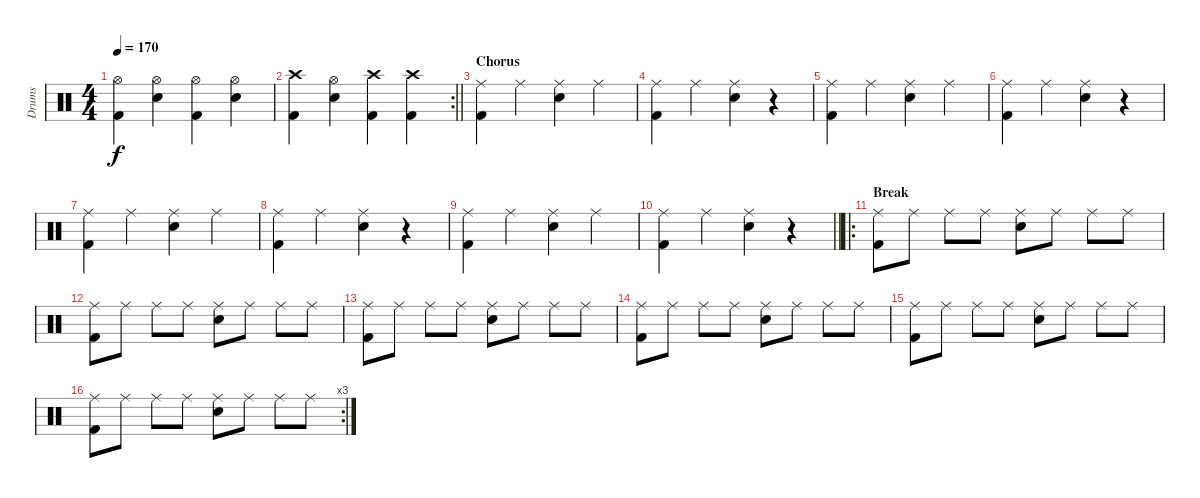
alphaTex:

\track ("Drums" "Drums") {instrument percussion}
\staff {score}
\articulation defaults
\ts (4 4)
\tempo 170
\clef neutral
\ks c
("Hi-Hat (open)" "Kick (hit) 2").4{dy f} ("Hi-Hat (open)" "Electric Snare (hit)").4 ("Hi-Hat (open)" "Kick (hit) 2").4 ("Hi-Hat (open)" "Electric Snare (hit)").4 |
\rc 2
\barLineRight lightlight
("Crash high (hit)" "Kick (hit) 2").4 ("Hi-Hat (open)" "Electric Snare (hit)").4 ("Crash high (hit)" "Kick (hit) 2").4 ("Crash high (hit)" "Kick (hit) 2").4 |
\section ("" "Chorus")
("Ride (middle)" "Kick (hit) 2").4 "Ride (middle)".4 ("Ride (middle)" "Electric Snare (hit)").4 "Ride (middle)".4 |
("Ride (middle)" "Kick (hit) 2").4 "Ride (middle)".4 ("Ride (middle)" "Electric Snare (hit)").4 r.4 |
("Ride (middle)" "Kick (hit) 2").4 "Ride (middle)".4 ("Ride (middle)" "Electric Snare (hit)").4 "Ride (middle)".4 |
("Ride (middle)" "Kick (hit) 2").4 "Ride (middle)".4 ("Ride (middle)" "Electric Snare (hit)").4 r.4 |
("Ride (middle)" "Kick (hit) 2").4 "Ride (middle)".4 ("Ride (middle)" "Electric Snare (hit)").4 "Ride (middle)".4 |
("Ride (middle)" "Kick (hit) 2").4 "Ride (middle)".4 ("Ride (middle)" "Electric Snare (hit)").4 r.4 |
("Ride (middle)" "Kick (hit) 2").4 "Ride (middle)".4 ("Ride (middle)" "Electric Snare (hit)").4 "Ride (middle)".4 |
\barLineRight lightlight
("Ride (middle)" "Kick (hit) 2").4 "Ride (middle)".4 ("Ride (middle)" "Electric Snare (hit)").4 r.4 |
\ro
\section ("" "Break")
("Ride (middle)" "Kick (hit) 2").8 "Ride (middle)".8 "Ride (middle)".8 "Ride (middle)".8 ("Ride (middle)" "Electric Snare (hit)").8 "Ride (middle)".8 "Ride (middle)".8 "Ride (middle)".8 |
("Ride (middle)" "Kick (hit) 2").8 "Ride (middle)".8 "Ride (middle)".8 "Ride (middle)".8 ("Ride (middle)" "Electric Snare (hit)").8 "Ride (middle)".8 "Ride (middle)".8 "Ride (middle)".8 |
("Ride (middle)" "Kick (hit) 2").8 "Ride (middle)".8 "Ride (middle)".8 "Ride (middle)".8 ("Ride (middle)" "Electric Snare (hit)").8 "Ride (middle)".8 "Ride (middle)".8 "Ride (middle)".8 |
("Ride (middle)" "Kick (hit) 2").8 "Ride (middle)".8 "Ride (middle)".8 "Ride (middle)".8 ("Ride (middle)" "Electric Snare (hit)").8 "Ride (middle)".8 "Ride (middle)".8 "Ride (middle)".8 |
("Ride (middle)" "Kick (hit) 2").8 "Ride (middle)".8 "Ride (middle)".8 "Ride (middle)".8 ("Ride (middle)" "Electric Snare (hit)").8 "Ride (middle)".8 "Ride (middle)".8 "Ride (middle)".8 |
\rc 3
("Ride (middle)" "Kick (hit) 2").8 "Ride (middle)".8 "Ride (middle)".8 "Ride (middle)".8 ("Ride (middle)" "Electric Snare (hit)").8 "Ride (middle)".8 "Ride (middle)".8 "Ride (middle)".8
